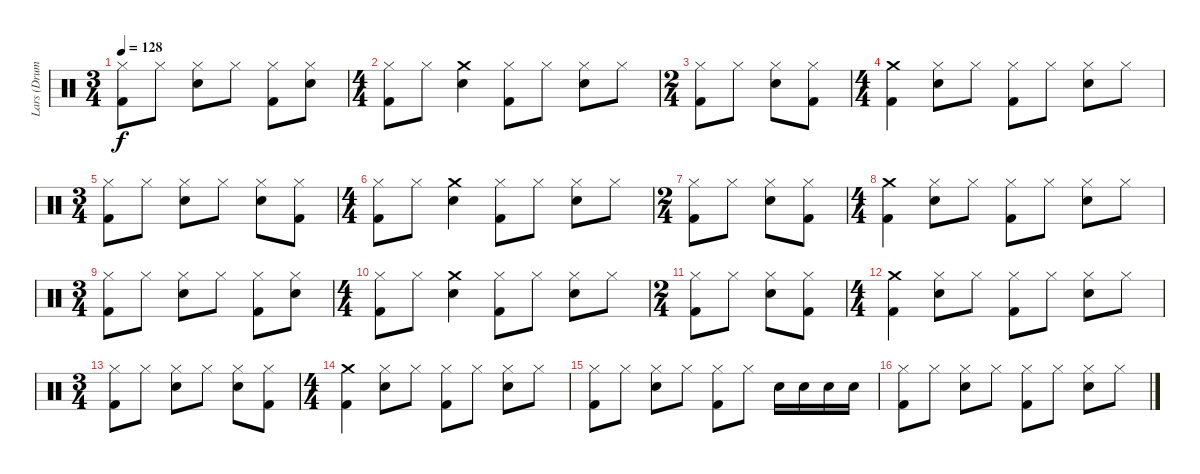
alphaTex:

\track ("Lars (Drums)" "Lars (Drum") {instrument percussion}
\staff {score}
\articulation defaults
\ts (3 4)
\tempo 128
\clef neutral
\ks c
("Kick (hit) 2" "Hi-Hat (closed)").8{dy f} "Hi-Hat (closed)".8 ("Snare (hit) 2" "Hi-Hat (closed)").8 "Hi-Hat (closed)".8 ("Kick (hit) 2" "Hi-Hat (closed)").8 ("Snare (hit) 2" "Hi-Hat (closed)").8 |
\ts (4 4)
("Hi-Hat (closed)" "Kick (hit) 2").8 "Hi-Hat (closed)".8 ("Snare (hit) 2" "Crash medium (hit)").4 ("Hi-Hat (closed)" "Kick (hit) 2").8 "Hi-Hat (closed)".8 ("Snare (hit) 2" "Hi-Hat (closed)").8 "Hi-Hat (closed)".8 |
\ts (2 4)
("Kick (hit) 2" "Hi-Hat (closed)").8 "Hi-Hat (closed)".8 ("Snare (hit) 2" "Hi-Hat (closed)").8 ("Kick (hit) 2" "Hi-Hat (closed)").8 |
\ts (4 4)
("Crash medium (hit)" "Kick (hit) 2").4 ("Snare (hit) 2" "Hi-Hat (closed)").8 "Hi-Hat (closed)".8 ("Hi-Hat (closed)" "Kick (hit) 2").8 "Hi-Hat (closed)".8 ("Snare (hit) 2" "Hi-Hat (closed)").8 "Hi-Hat (closed)".8 |
\ts (3 4)
("Kick (hit) 2" "Hi-Hat (closed)").8 "Hi-Hat (closed)".8 ("Snare (hit) 2" "Hi-Hat (closed)").8 "Hi-Hat (closed)".8 ("Hi-Hat (closed)" "Snare (hit) 2").8 ("Kick (hit) 2" "Hi-Hat (closed)").8 |
\ts (4 4)
("Hi-Hat (closed)" "Kick (hit) 2").8 "Hi-Hat (closed)".8 ("Snare (hit) 2" "Crash medium (hit)").4 ("Hi-Hat (closed)" "Kick (hit) 2").8 "Hi-Hat (closed)".8 ("Snare (hit) 2" "Hi-Hat (closed)").8 "Hi-Hat (closed)".8 |
\ts (2 4)
("Kick (hit) 2" "Hi-Hat (closed)").8 "Hi-Hat (closed)".8 ("Snare (hit) 2" "Hi-Hat (closed)").8 ("Kick (hit) 2" "Hi-Hat (closed)").8 |
\ts (4 4)
("Crash medium (hit)" "Kick (hit) 2").4 ("Snare (hit) 2" "Hi-Hat (closed)").8 "Hi-Hat (closed)".8 ("Hi-Hat (closed)" "Kick (hit) 2").8 "Hi-Hat (closed)".8 ("Snare (hit) 2" "Hi-Hat (closed)").8 "Hi-Hat (closed)".8 |
\ts (3 4)
("Kick (hit) 2" "Hi-Hat (closed)").8 "Hi-Hat (closed)".8 ("Snare (hit) 2" "Hi-Hat (closed)").8 "Hi-Hat (closed)".8 ("Kick (hit) 2" "Hi-Hat (closed)").8 ("Snare (hit) 2" "Hi-Hat (closed)").8 |
\ts (4 4)
("Hi-Hat (closed)" "Kick (hit) 2").8 "Hi-Hat (closed)".8 ("Snare (hit) 2" "Crash medium (hit)").4 ("Hi-Hat (closed)" "Kick (hit) 2").8 "Hi-Hat (closed)".8 ("Snare (hit) 2" "Hi-Hat (closed)").8 "Hi-Hat (closed)".8 |
\ts (2 4)
("Kick (hit) 2" "Hi-Hat (closed)").8 "Hi-Hat (closed)".8 ("Snare (hit) 2" "Hi-Hat (closed)").8 ("Kick (hit) 2" "Hi-Hat (closed)").8 |
\ts (4 4)
("Crash medium (hit)" "Kick (hit) 2").4 ("Snare (hit) 2" "Hi-Hat (closed)").8 "Hi-Hat (closed)".8 ("Hi-Hat (closed)" "Kick (hit) 2").8 "Hi-Hat (closed)".8 ("Snare (hit) 2" "Hi-Hat (closed)").8 "Hi-Hat (closed)".8 |
\ts (3 4)
("Kick (hit) 2" "Hi-Hat (closed)").8 "Hi-Hat (closed)".8 ("Snare (hit) 2" "Hi-Hat (closed)").8 "Hi-Hat (closed)".8 ("Hi-Hat (closed)" "Snare (hit) 2").8 ("Kick (hit) 2" "Hi-Hat (closed)").8 |
\ts (4 4)
("Kick (hit) 2" "Crash medium (hit)").4 ("Hi-Hat (closed)" "Snare (hit) 2").8 "Hi-Hat (closed)".8 ("Hi-Hat (closed)" "Kick (hit) 2").8 "Hi-Hat (closed)".8 ("Snare (hit) 2" "Hi-Hat (closed)").8 "Hi-Hat (closed)".8 |
("Hi-Hat (closed)" "Kick (hit) 2").8 "Hi-Hat (closed)".8 ("Snare (hit) 2" "Hi-Hat (closed)").8 "Hi-Hat (closed)".8 ("Hi-Hat (closed)" "Kick (hit) 2").8 "Hi-Hat (closed)".8 "Snare (hit) 2".16 "Snare (hit) 2".16 "Snare (hit) 2".16 "Snare (hit) 2".16 |
("Hi-Hat (closed)" "Kick (hit) 2").8 "Hi-Hat (closed)".8 ("Snare (hit) 2" "Hi-Hat (closed)").8 "Hi-Hat (closed)".8 ("Hi-Hat (closed)" "Kick (hit) 2").8 "Hi-Hat (closed)".8 ("Snare (hit) 2" "Hi-Hat (closed)").8 "Hi-Hat (closed)".8
